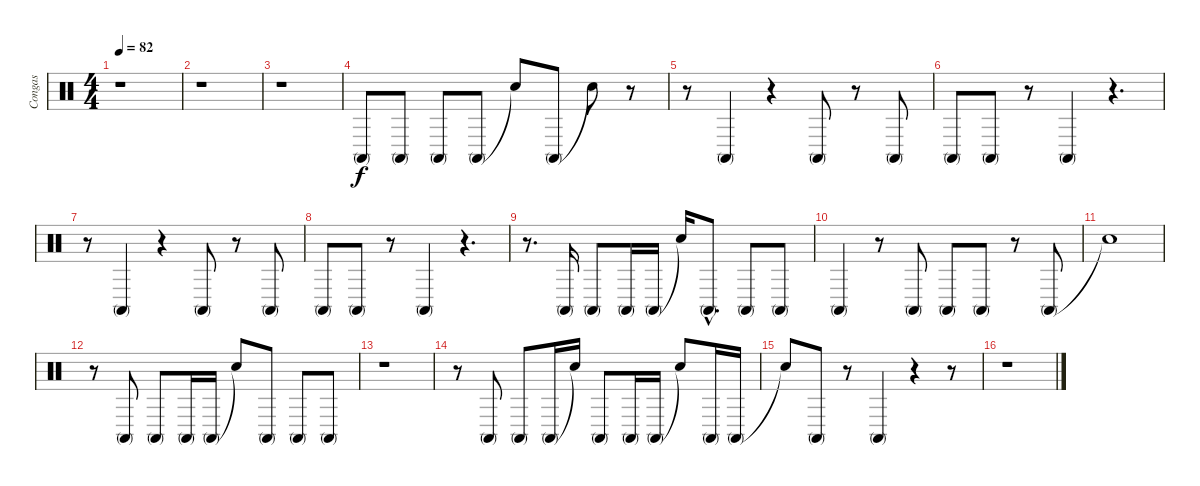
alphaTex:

\track ("Congas" "Congas") {instrument percussion}
\staff {score}
\articulation defaults
\ts (4 4)
\tempo 82
\clef neutral
\ks c
r.1{dy f} |
r.1 |
r.1 |
"Conga high (mute)".8 "Conga high (mute)".8 "Conga high (mute)".8 "Conga high (mute)".8 "Snare (hit)"{t}.8 "Conga high (mute)".8 "Snare (hit)"{t}.8 r.8 |
r.8 "Conga high (mute)".4 r.4 "Conga high (mute)".8 r.8 "Conga high (mute)".8 |
"Conga high (mute)".8 "Conga high (mute)".8 r.8 "Conga high (mute)".4 r.4{d} |
r.8 "Conga high (mute)".4 r.4 "Conga high (mute)".8 r.8 "Conga high (mute)".8 |
"Conga high (mute)".8 "Conga high (mute)".8 r.8 "Conga high (mute)".4 r.4{d} |
r.8{d} "Conga high (mute)".16 "Conga high (mute)".8 "Conga high (mute)".16 "Conga high (mute)".16 "Snare (hit)"{t}.16 "Conga high (mute)"{hac}.8{d} "Conga high (mute)".8 "Conga high (mute)".8 |
"Conga high (mute)".4 r.8 "Conga high (mute)".8 "Conga high (mute)".8 "Conga high (mute)".8 r.8 "Conga high (mute)".8 |
"Snare (hit)"{t}.1 |
r.8 "Conga high (mute)".8 "Conga high (mute)".8 "Conga high (mute)".16 "Conga high (mute)".16 "Snare (hit)"{t}.8 "Conga high (mute)".8 "Conga high (mute)".8 "Conga high (mute)".8 |
r.1 |
r.8 "Conga high (mute)".8 "Conga high (mute)".8 "Conga high (mute)".16 "Snare (hit)"{t}.16 "Conga high (mute)".8 "Conga high (mute)".16 "Conga high (mute)".16 "Snare (hit)"{t}.8 "Conga high (mute)".16 "Conga high (mute)".16 |
"Snare (hit)"{t}.8 "Conga high (mute)".8 r.8 "Conga high (mute)".4 r.4 r.8 |
r.1
